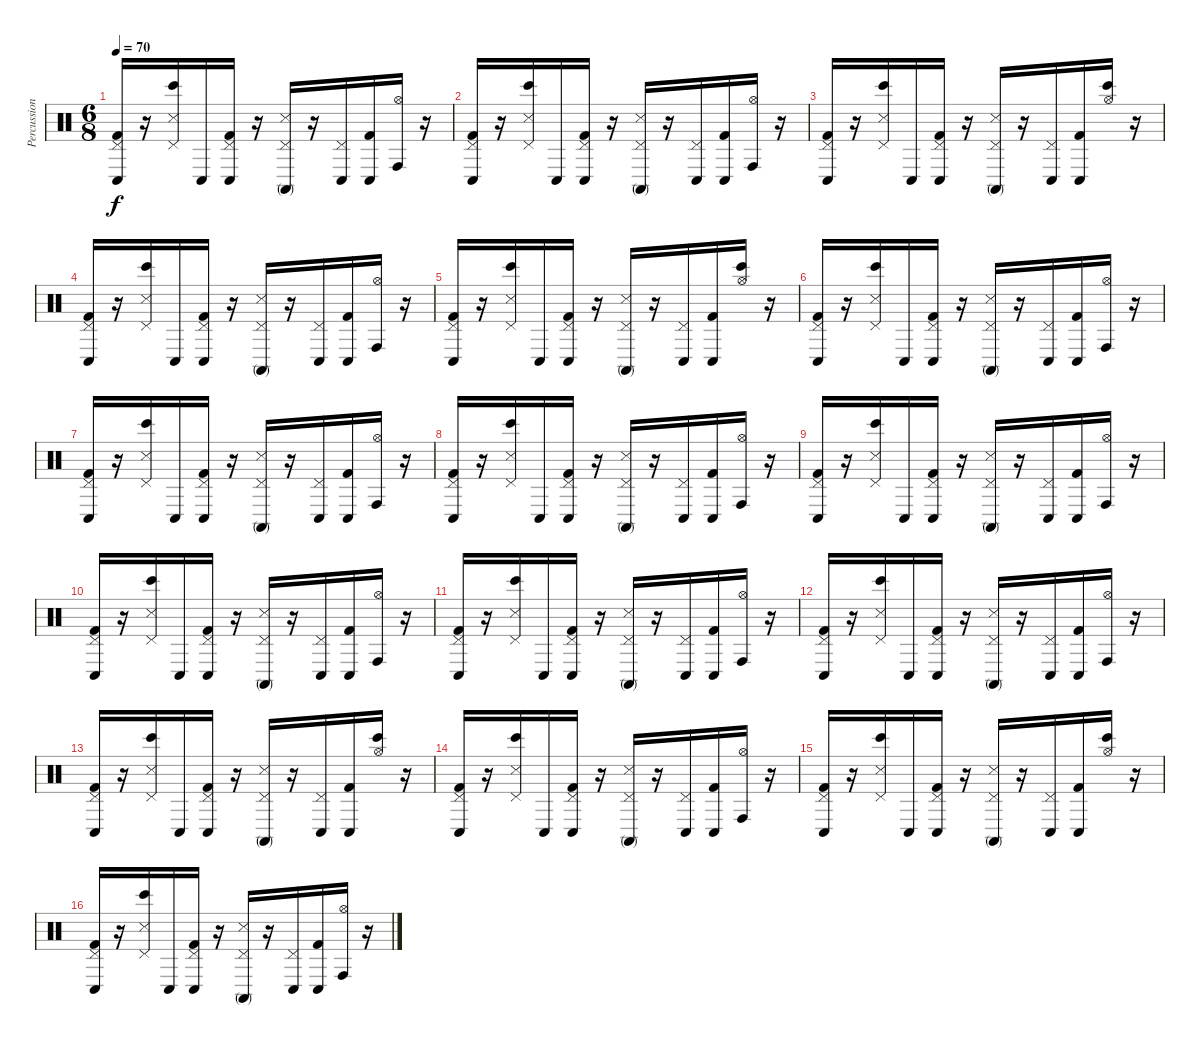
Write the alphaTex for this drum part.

\track ("Percussion" "Percussion") {instrument percussion}
\staff {score}
\articulation defaults
\ts (6 8)
\tempo 70
\clef neutral
\ks c
("Pedal Hi-Hat (hit)" "Conga low (hit)" "Kick (hit) 2").16{dy f} r.16 ("Pedal Hi-Hat (hit)" "Bongo High (hit)" "Snare (side stick) 3").16 "Conga low (hit)".16 ("Pedal Hi-Hat (hit)" "Conga low (hit)" "Kick (hit) 2").16 r.16 ("Pedal Hi-Hat (hit)" "Conga high (mute)" "Snare (side stick) 3").16 r.16 ("Pedal Hi-Hat (hit)" "Conga low (hit)").16 ("Conga low (hit)" "Kick (hit) 2").16 ("Hi-Hat (open)" "Conga high (hit)").16 r.16 |
("Pedal Hi-Hat (hit)" "Conga low (hit)" "Kick (hit) 2").16 r.16 ("Pedal Hi-Hat (hit)" "Bongo High (hit)" "Snare (side stick) 3").16 "Conga low (hit)".16 ("Pedal Hi-Hat (hit)" "Conga low (hit)" "Kick (hit) 2").16 r.16 ("Pedal Hi-Hat (hit)" "Conga high (mute)" "Snare (side stick) 3").16 r.16 ("Pedal Hi-Hat (hit)" "Conga low (hit)").16 ("Conga low (hit)" "Kick (hit) 2").16 ("Hi-Hat (open)" "Conga high (hit)").16 r.16 |
("Pedal Hi-Hat (hit)" "Conga low (hit)" "Kick (hit) 2").16 r.16 ("Pedal Hi-Hat (hit)" "Bongo High (hit)" "Snare (side stick) 3").16 "Conga low (hit)".16 ("Pedal Hi-Hat (hit)" "Conga low (hit)" "Kick (hit) 2").16 r.16 ("Pedal Hi-Hat (hit)" "Conga high (mute)" "Snare (side stick) 3").16 r.16 ("Pedal Hi-Hat (hit)" "Conga low (hit)").16 ("Conga low (hit)" "Kick (hit) 2").16 ("Hi-Hat (open)" "Bongo High (hit)").16 r.16 |
("Pedal Hi-Hat (hit)" "Conga low (hit)" "Kick (hit) 2").16 r.16 ("Pedal Hi-Hat (hit)" "Bongo High (hit)" "Snare (side stick) 3").16 "Conga low (hit)".16 ("Pedal Hi-Hat (hit)" "Conga low (hit)" "Kick (hit) 2").16 r.16 ("Pedal Hi-Hat (hit)" "Conga high (mute)" "Snare (side stick) 3").16 r.16 ("Pedal Hi-Hat (hit)" "Conga low (hit)").16 ("Conga low (hit)" "Kick (hit) 2").16 ("Hi-Hat (open)" "Conga high (hit)").16 r.16 |
("Pedal Hi-Hat (hit)" "Conga low (hit)" "Kick (hit) 2").16 r.16 ("Pedal Hi-Hat (hit)" "Bongo High (hit)" "Snare (side stick) 3").16 "Conga low (hit)".16 ("Pedal Hi-Hat (hit)" "Conga low (hit)" "Kick (hit) 2").16 r.16 ("Pedal Hi-Hat (hit)" "Conga high (mute)" "Snare (side stick) 3").16 r.16 ("Pedal Hi-Hat (hit)" "Conga low (hit)").16 ("Conga low (hit)" "Kick (hit) 2").16 ("Hi-Hat (open)" "Bongo High (hit)").16 r.16 |
("Pedal Hi-Hat (hit)" "Conga low (hit)" "Kick (hit) 2").16 r.16 ("Pedal Hi-Hat (hit)" "Bongo High (hit)" "Snare (side stick) 3").16 "Conga low (hit)".16 ("Pedal Hi-Hat (hit)" "Conga low (hit)" "Kick (hit) 2").16 r.16 ("Pedal Hi-Hat (hit)" "Conga high (mute)" "Snare (side stick) 3").16 r.16 ("Pedal Hi-Hat (hit)" "Conga low (hit)").16 ("Conga low (hit)" "Kick (hit) 2").16 ("Hi-Hat (open)" "Conga high (hit)").16 r.16 |
("Pedal Hi-Hat (hit)" "Conga low (hit)" "Kick (hit) 2").16 r.16 ("Pedal Hi-Hat (hit)" "Bongo High (hit)" "Snare (side stick) 3").16 "Conga low (hit)".16 ("Pedal Hi-Hat (hit)" "Conga low (hit)" "Kick (hit) 2").16 r.16 ("Pedal Hi-Hat (hit)" "Conga high (mute)" "Snare (side stick) 3").16 r.16 ("Pedal Hi-Hat (hit)" "Conga low (hit)").16 ("Conga low (hit)" "Kick (hit) 2").16 ("Hi-Hat (open)" "Conga high (hit)").16 r.16 |
("Pedal Hi-Hat (hit)" "Conga low (hit)" "Kick (hit) 2").16 r.16 ("Pedal Hi-Hat (hit)" "Bongo High (hit)" "Snare (side stick) 3").16 "Conga low (hit)".16 ("Pedal Hi-Hat (hit)" "Conga low (hit)" "Kick (hit) 2").16 r.16 ("Pedal Hi-Hat (hit)" "Conga high (mute)" "Snare (side stick) 3").16 r.16 ("Pedal Hi-Hat (hit)" "Conga low (hit)").16 ("Conga low (hit)" "Kick (hit) 2").16 ("Hi-Hat (open)" "Conga high (hit)").16 r.16 |
("Pedal Hi-Hat (hit)" "Conga low (hit)" "Kick (hit) 2").16 r.16 ("Pedal Hi-Hat (hit)" "Bongo High (hit)" "Snare (side stick) 3").16 "Conga low (hit)".16 ("Pedal Hi-Hat (hit)" "Conga low (hit)" "Kick (hit) 2").16 r.16 ("Pedal Hi-Hat (hit)" "Conga high (mute)" "Snare (side stick) 3").16 r.16 ("Pedal Hi-Hat (hit)" "Conga low (hit)").16 ("Conga low (hit)" "Kick (hit) 2").16 ("Hi-Hat (open)" "Conga high (hit)").16 r.16 |
("Pedal Hi-Hat (hit)" "Conga low (hit)" "Kick (hit) 2").16 r.16 ("Pedal Hi-Hat (hit)" "Bongo High (hit)" "Snare (side stick) 3").16 "Conga low (hit)".16 ("Pedal Hi-Hat (hit)" "Conga low (hit)" "Kick (hit) 2").16 r.16 ("Pedal Hi-Hat (hit)" "Conga high (mute)" "Snare (side stick) 3").16 r.16 ("Pedal Hi-Hat (hit)" "Conga low (hit)").16 ("Conga low (hit)" "Kick (hit) 2").16 ("Hi-Hat (open)" "Conga high (hit)").16 r.16 |
("Pedal Hi-Hat (hit)" "Conga low (hit)" "Kick (hit) 2").16 r.16 ("Pedal Hi-Hat (hit)" "Bongo High (hit)" "Snare (side stick) 3").16 "Conga low (hit)".16 ("Pedal Hi-Hat (hit)" "Conga low (hit)" "Kick (hit) 2").16 r.16 ("Pedal Hi-Hat (hit)" "Conga high (mute)" "Snare (side stick) 3").16 r.16 ("Pedal Hi-Hat (hit)" "Conga low (hit)").16 ("Conga low (hit)" "Kick (hit) 2").16 ("Hi-Hat (open)" "Conga high (hit)").16 r.16 |
("Pedal Hi-Hat (hit)" "Conga low (hit)" "Kick (hit) 2").16 r.16 ("Pedal Hi-Hat (hit)" "Bongo High (hit)" "Snare (side stick) 3").16 "Conga low (hit)".16 ("Pedal Hi-Hat (hit)" "Conga low (hit)" "Kick (hit) 2").16 r.16 ("Pedal Hi-Hat (hit)" "Conga high (mute)" "Snare (side stick) 3").16 r.16 ("Pedal Hi-Hat (hit)" "Conga low (hit)").16 ("Conga low (hit)" "Kick (hit) 2").16 ("Hi-Hat (open)" "Conga high (hit)").16 r.16 |
("Pedal Hi-Hat (hit)" "Conga low (hit)" "Kick (hit) 2").16 r.16 ("Pedal Hi-Hat (hit)" "Bongo High (hit)" "Snare (side stick) 3").16 "Conga low (hit)".16 ("Pedal Hi-Hat (hit)" "Conga low (hit)" "Kick (hit) 2").16 r.16 ("Pedal Hi-Hat (hit)" "Conga high (mute)" "Snare (side stick) 3").16 r.16 ("Pedal Hi-Hat (hit)" "Conga low (hit)").16 ("Conga low (hit)" "Kick (hit) 2").16 ("Hi-Hat (open)" "Bongo High (hit)").16 r.16 |
("Pedal Hi-Hat (hit)" "Conga low (hit)" "Kick (hit) 2").16 r.16 ("Pedal Hi-Hat (hit)" "Bongo High (hit)" "Snare (side stick) 3").16 "Conga low (hit)".16 ("Pedal Hi-Hat (hit)" "Conga low (hit)" "Kick (hit) 2").16 r.16 ("Pedal Hi-Hat (hit)" "Conga high (mute)" "Snare (side stick) 3").16 r.16 ("Pedal Hi-Hat (hit)" "Conga low (hit)").16 ("Conga low (hit)" "Kick (hit) 2").16 ("Hi-Hat (open)" "Conga high (hit)").16 r.16 |
("Pedal Hi-Hat (hit)" "Conga low (hit)" "Kick (hit) 2").16 r.16 ("Pedal Hi-Hat (hit)" "Bongo High (hit)" "Snare (side stick) 3").16 "Conga low (hit)".16 ("Pedal Hi-Hat (hit)" "Conga low (hit)" "Kick (hit) 2").16 r.16 ("Pedal Hi-Hat (hit)" "Conga high (mute)" "Snare (side stick) 3").16 r.16 ("Pedal Hi-Hat (hit)" "Conga low (hit)").16 ("Conga low (hit)" "Kick (hit) 2").16 ("Hi-Hat (open)" "Bongo High (hit)").16 r.16 |
("Pedal Hi-Hat (hit)" "Conga low (hit)" "Kick (hit) 2").16 r.16 ("Pedal Hi-Hat (hit)" "Bongo High (hit)" "Snare (side stick) 3").16 "Conga low (hit)".16 ("Pedal Hi-Hat (hit)" "Conga low (hit)" "Kick (hit) 2").16 r.16 ("Pedal Hi-Hat (hit)" "Conga high (mute)" "Snare (side stick) 3").16 r.16 ("Pedal Hi-Hat (hit)" "Conga low (hit)").16 ("Conga low (hit)" "Kick (hit) 2").16 ("Hi-Hat (open)" "Conga high (hit)").16 r.16
